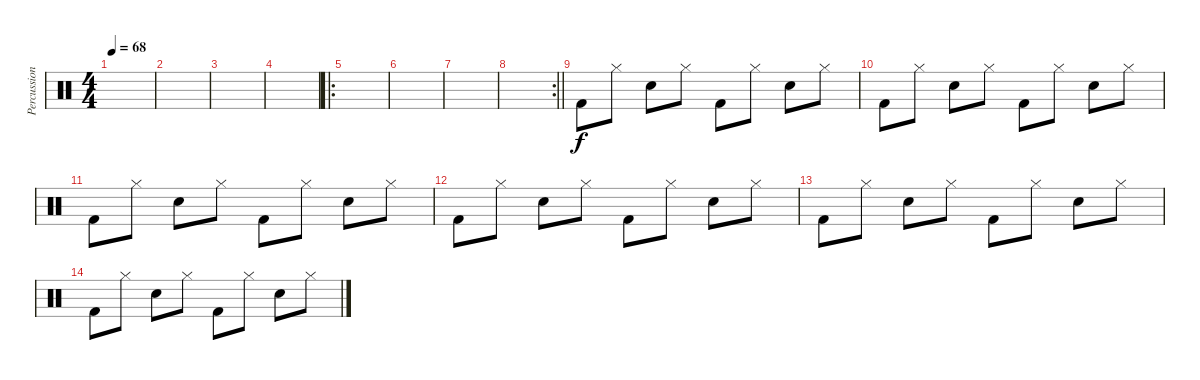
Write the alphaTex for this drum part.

\track ("Percussions" "Percussion") {instrument percussion}
\staff {score}
\articulation defaults
\ts (4 4)
\tempo 68
\clef neutral
\ks c
|
|
|
|
\ro
|
|
|
\rc 2
\barLineRight lightlight
|
\section ("" "")
"Kick (hit) 2".8 "Hi-Hat (closed)".8 "Snare (hit) 2".8 "Hi-Hat (closed)".8 "Kick (hit) 2".8 "Hi-Hat (closed)".8 "Snare (hit) 2".8 "Hi-Hat (closed)".8 |
"Kick (hit) 2".8 "Hi-Hat (closed)".8 "Snare (hit) 2".8 "Hi-Hat (closed)".8 "Kick (hit) 2".8 "Hi-Hat (closed)".8 "Snare (hit) 2".8 "Hi-Hat (closed)".8 |
"Kick (hit) 2".8 "Hi-Hat (closed)".8 "Snare (hit) 2".8 "Hi-Hat (closed)".8 "Kick (hit) 2".8 "Hi-Hat (closed)".8 "Snare (hit) 2".8 "Hi-Hat (closed)".8 |
"Kick (hit) 2".8 "Hi-Hat (closed)".8 "Snare (hit) 2".8 "Hi-Hat (closed)".8 "Kick (hit) 2".8 "Hi-Hat (closed)".8 "Snare (hit) 2".8 "Hi-Hat (closed)".8 |
"Kick (hit) 2".8 "Hi-Hat (closed)".8 "Snare (hit) 2".8 "Hi-Hat (closed)".8 "Kick (hit) 2".8 "Hi-Hat (closed)".8 "Snare (hit) 2".8 "Hi-Hat (closed)".8 |
"Kick (hit) 2".8 "Hi-Hat (closed)".8 "Snare (hit) 2".8 "Hi-Hat (closed)".8 "Kick (hit) 2".8 "Hi-Hat (closed)".8 "Snare (hit) 2".8 "Hi-Hat (closed)".8
